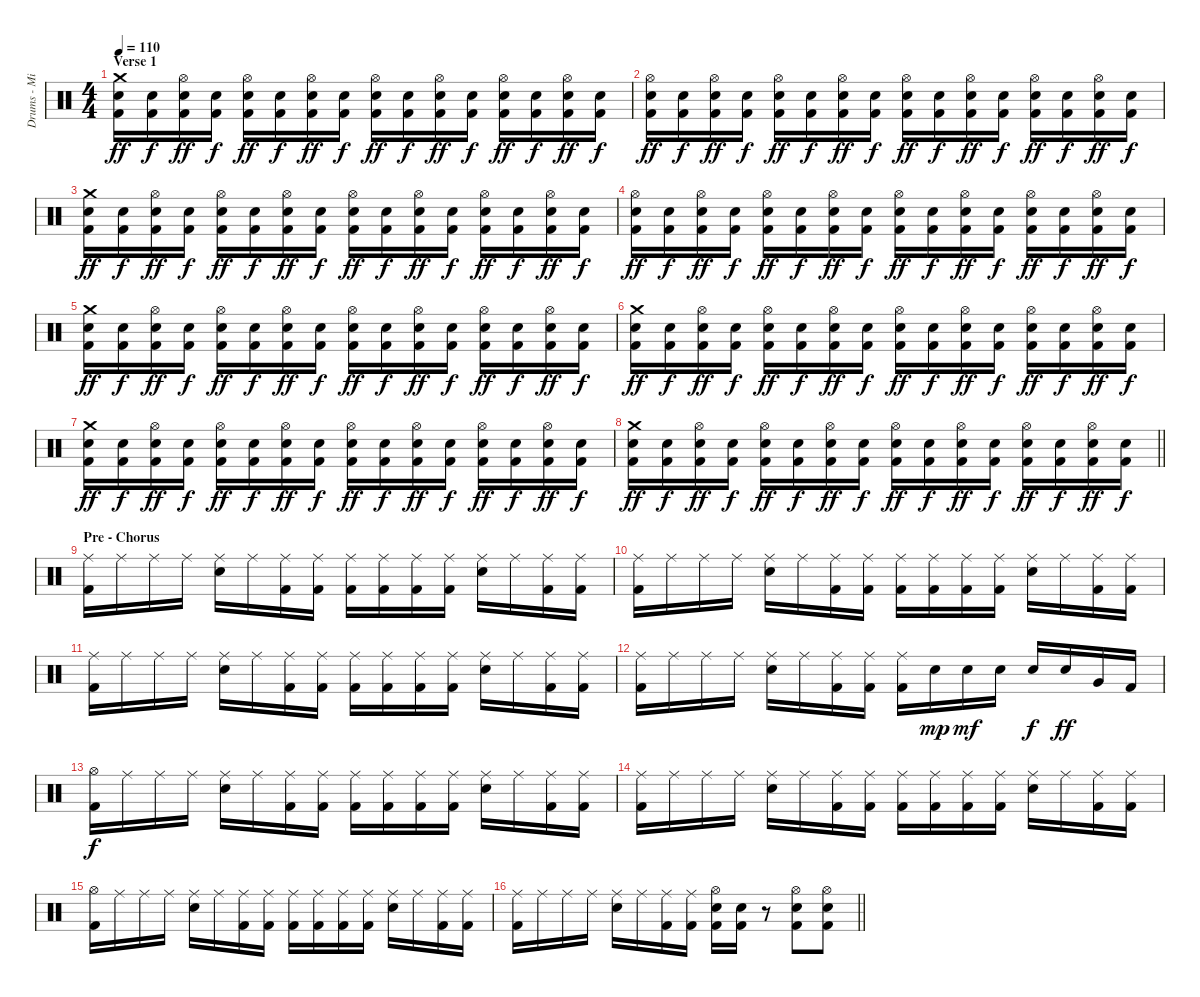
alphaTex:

\track ("Drums - Mikko" "Drums - Mi") {instrument percussion}
\staff {score}
\articulation defaults
\ts (4 4)
\section ("" "Verse 1")
\tempo 110
\clef neutral
\ks c
("Crash medium (hit)" "Snare (hit) 2" "Kick (hit) 2").16{dy ff volume 11} ("Snare (hit) 2" "Kick (hit) 2").16{dy f} ("Hi-Hat (open)" "Snare (hit) 2" "Kick (hit) 2").16{dy ff} ("Snare (hit) 2" "Kick (hit) 2").16{dy f} ("Hi-Hat (open)" "Snare (hit) 2" "Kick (hit) 2").16{dy ff} ("Snare (hit) 2" "Kick (hit) 2").16{dy f} ("Hi-Hat (open)" "Snare (hit) 2" "Kick (hit) 2").16{dy ff} ("Snare (hit) 2" "Kick (hit) 2").16{dy f} ("Hi-Hat (open)" "Snare (hit) 2" "Kick (hit) 2").16{dy ff} ("Snare (hit) 2" "Kick (hit) 2").16{dy f} ("Hi-Hat (open)" "Snare (hit) 2" "Kick (hit) 2").16{dy ff} ("Snare (hit) 2" "Kick (hit) 2").16{dy f} ("Hi-Hat (open)" "Snare (hit) 2" "Kick (hit) 2").16{dy ff} ("Snare (hit) 2" "Kick (hit) 2").16{dy f} ("Hi-Hat (open)" "Snare (hit) 2" "Kick (hit) 2").16{dy ff} ("Snare (hit) 2" "Kick (hit) 2").16{dy f} |
("Hi-Hat (open)" "Snare (hit) 2" "Kick (hit) 2").16{dy ff volume 11} ("Snare (hit) 2" "Kick (hit) 2").16{dy f} ("Hi-Hat (open)" "Snare (hit) 2" "Kick (hit) 2").16{dy ff} ("Snare (hit) 2" "Kick (hit) 2").16{dy f} ("Hi-Hat (open)" "Snare (hit) 2" "Kick (hit) 2").16{dy ff} ("Snare (hit) 2" "Kick (hit) 2").16{dy f} ("Hi-Hat (open)" "Snare (hit) 2" "Kick (hit) 2").16{dy ff} ("Snare (hit) 2" "Kick (hit) 2").16{dy f} ("Hi-Hat (open)" "Snare (hit) 2" "Kick (hit) 2").16{dy ff} ("Snare (hit) 2" "Kick (hit) 2").16{dy f} ("Hi-Hat (open)" "Snare (hit) 2" "Kick (hit) 2").16{dy ff} ("Snare (hit) 2" "Kick (hit) 2").16{dy f} ("Hi-Hat (open)" "Snare (hit) 2" "Kick (hit) 2").16{dy ff} ("Snare (hit) 2" "Kick (hit) 2").16{dy f} ("Hi-Hat (open)" "Snare (hit) 2" "Kick (hit) 2").16{dy ff} ("Snare (hit) 2" "Kick (hit) 2").16{dy f} |
("Crash medium (hit)" "Snare (hit) 2" "Kick (hit) 2").16{dy ff volume 11} ("Snare (hit) 2" "Kick (hit) 2").16{dy f} ("Hi-Hat (open)" "Snare (hit) 2" "Kick (hit) 2").16{dy ff} ("Snare (hit) 2" "Kick (hit) 2").16{dy f} ("Hi-Hat (open)" "Snare (hit) 2" "Kick (hit) 2").16{dy ff} ("Snare (hit) 2" "Kick (hit) 2").16{dy f} ("Hi-Hat (open)" "Snare (hit) 2" "Kick (hit) 2").16{dy ff} ("Snare (hit) 2" "Kick (hit) 2").16{dy f} ("Hi-Hat (open)" "Snare (hit) 2" "Kick (hit) 2").16{dy ff} ("Snare (hit) 2" "Kick (hit) 2").16{dy f} ("Hi-Hat (open)" "Snare (hit) 2" "Kick (hit) 2").16{dy ff} ("Snare (hit) 2" "Kick (hit) 2").16{dy f} ("Hi-Hat (open)" "Snare (hit) 2" "Kick (hit) 2").16{dy ff} ("Snare (hit) 2" "Kick (hit) 2").16{dy f} ("Hi-Hat (open)" "Snare (hit) 2" "Kick (hit) 2").16{dy ff} ("Snare (hit) 2" "Kick (hit) 2").16{dy f} |
("Hi-Hat (open)" "Snare (hit) 2" "Kick (hit) 2").16{dy ff volume 11} ("Snare (hit) 2" "Kick (hit) 2").16{dy f} ("Hi-Hat (open)" "Snare (hit) 2" "Kick (hit) 2").16{dy ff} ("Snare (hit) 2" "Kick (hit) 2").16{dy f} ("Hi-Hat (open)" "Snare (hit) 2" "Kick (hit) 2").16{dy ff} ("Snare (hit) 2" "Kick (hit) 2").16{dy f} ("Hi-Hat (open)" "Snare (hit) 2" "Kick (hit) 2").16{dy ff} ("Snare (hit) 2" "Kick (hit) 2").16{dy f} ("Hi-Hat (open)" "Snare (hit) 2" "Kick (hit) 2").16{dy ff} ("Snare (hit) 2" "Kick (hit) 2").16{dy f} ("Hi-Hat (open)" "Snare (hit) 2" "Kick (hit) 2").16{dy ff} ("Snare (hit) 2" "Kick (hit) 2").16{dy f} ("Hi-Hat (open)" "Snare (hit) 2" "Kick (hit) 2").16{dy ff} ("Snare (hit) 2" "Kick (hit) 2").16{dy f} ("Hi-Hat (open)" "Snare (hit) 2" "Kick (hit) 2").16{dy ff} ("Snare (hit) 2" "Kick (hit) 2").16{dy f} |
("Crash medium (hit)" "Snare (hit) 2" "Kick (hit) 2").16{dy ff volume 11} ("Snare (hit) 2" "Kick (hit) 2").16{dy f} ("Hi-Hat (open)" "Snare (hit) 2" "Kick (hit) 2").16{dy ff} ("Snare (hit) 2" "Kick (hit) 2").16{dy f} ("Hi-Hat (open)" "Snare (hit) 2" "Kick (hit) 2").16{dy ff} ("Snare (hit) 2" "Kick (hit) 2").16{dy f} ("Hi-Hat (open)" "Snare (hit) 2" "Kick (hit) 2").16{dy ff} ("Snare (hit) 2" "Kick (hit) 2").16{dy f} ("Hi-Hat (open)" "Snare (hit) 2" "Kick (hit) 2").16{dy ff} ("Snare (hit) 2" "Kick (hit) 2").16{dy f} ("Hi-Hat (open)" "Snare (hit) 2" "Kick (hit) 2").16{dy ff} ("Snare (hit) 2" "Kick (hit) 2").16{dy f} ("Hi-Hat (open)" "Snare (hit) 2" "Kick (hit) 2").16{dy ff} ("Snare (hit) 2" "Kick (hit) 2").16{dy f} ("Hi-Hat (open)" "Snare (hit) 2" "Kick (hit) 2").16{dy ff} ("Snare (hit) 2" "Kick (hit) 2").16{dy f} |
("Crash medium (hit)" "Snare (hit) 2" "Kick (hit) 2").16{dy ff volume 11} ("Snare (hit) 2" "Kick (hit) 2").16{dy f} ("Hi-Hat (open)" "Snare (hit) 2" "Kick (hit) 2").16{dy ff} ("Snare (hit) 2" "Kick (hit) 2").16{dy f} ("Hi-Hat (open)" "Snare (hit) 2" "Kick (hit) 2").16{dy ff} ("Snare (hit) 2" "Kick (hit) 2").16{dy f} ("Hi-Hat (open)" "Snare (hit) 2" "Kick (hit) 2").16{dy ff} ("Snare (hit) 2" "Kick (hit) 2").16{dy f} ("Hi-Hat (open)" "Snare (hit) 2" "Kick (hit) 2").16{dy ff} ("Snare (hit) 2" "Kick (hit) 2").16{dy f} ("Hi-Hat (open)" "Snare (hit) 2" "Kick (hit) 2").16{dy ff} ("Snare (hit) 2" "Kick (hit) 2").16{dy f} ("Hi-Hat (open)" "Snare (hit) 2" "Kick (hit) 2").16{dy ff} ("Snare (hit) 2" "Kick (hit) 2").16{dy f} ("Hi-Hat (open)" "Snare (hit) 2" "Kick (hit) 2").16{dy ff} ("Snare (hit) 2" "Kick (hit) 2").16{dy f} |
("Crash medium (hit)" "Snare (hit) 2" "Kick (hit) 2").16{dy ff volume 11} ("Snare (hit) 2" "Kick (hit) 2").16{dy f} ("Hi-Hat (open)" "Snare (hit) 2" "Kick (hit) 2").16{dy ff} ("Snare (hit) 2" "Kick (hit) 2").16{dy f} ("Hi-Hat (open)" "Snare (hit) 2" "Kick (hit) 2").16{dy ff} ("Snare (hit) 2" "Kick (hit) 2").16{dy f} ("Hi-Hat (open)" "Snare (hit) 2" "Kick (hit) 2").16{dy ff} ("Snare (hit) 2" "Kick (hit) 2").16{dy f} ("Hi-Hat (open)" "Snare (hit) 2" "Kick (hit) 2").16{dy ff} ("Snare (hit) 2" "Kick (hit) 2").16{dy f} ("Hi-Hat (open)" "Snare (hit) 2" "Kick (hit) 2").16{dy ff} ("Snare (hit) 2" "Kick (hit) 2").16{dy f} ("Hi-Hat (open)" "Snare (hit) 2" "Kick (hit) 2").16{dy ff} ("Snare (hit) 2" "Kick (hit) 2").16{dy f} ("Hi-Hat (open)" "Snare (hit) 2" "Kick (hit) 2").16{dy ff} ("Snare (hit) 2" "Kick (hit) 2").16{dy f} |
\barLineRight lightlight
("Crash medium (hit)" "Snare (hit) 2" "Kick (hit) 2").16{dy ff volume 11} ("Snare (hit) 2" "Kick (hit) 2").16{dy f} ("Hi-Hat (open)" "Snare (hit) 2" "Kick (hit) 2").16{dy ff} ("Snare (hit) 2" "Kick (hit) 2").16{dy f} ("Hi-Hat (open)" "Snare (hit) 2" "Kick (hit) 2").16{dy ff} ("Snare (hit) 2" "Kick (hit) 2").16{dy f} ("Hi-Hat (open)" "Snare (hit) 2" "Kick (hit) 2").16{dy ff} ("Snare (hit) 2" "Kick (hit) 2").16{dy f} ("Hi-Hat (open)" "Snare (hit) 2" "Kick (hit) 2").16{dy ff} ("Snare (hit) 2" "Kick (hit) 2").16{dy f} ("Hi-Hat (open)" "Snare (hit) 2" "Kick (hit) 2").16{dy ff} ("Snare (hit) 2" "Kick (hit) 2").16{dy f} ("Hi-Hat (open)" "Snare (hit) 2" "Kick (hit) 2").16{dy ff} ("Snare (hit) 2" "Kick (hit) 2").16{dy f} ("Hi-Hat (open)" "Snare (hit) 2" "Kick (hit) 2").16{dy ff} ("Snare (hit) 2" "Kick (hit) 2").16{dy f} |
\section ("" "Pre - Chorus")
("Ride (middle)" "Kick (hit) 2").16{volume 13} "Ride (middle)".16 "Ride (middle)".16 "Ride (middle)".16 ("Ride (middle)" "Snare (hit) 2").16 "Ride (middle)".16 ("Ride (middle)" "Kick (hit) 2").16 ("Ride (middle)" "Kick (hit) 2").16 ("Ride (middle)" "Kick (hit) 2").16 ("Ride (middle)" "Kick (hit) 2").16 ("Ride (middle)" "Kick (hit) 2").16 ("Ride (middle)" "Kick (hit) 2").16 ("Ride (middle)" "Snare (hit) 2").16 "Ride (middle)".16 ("Ride (middle)" "Kick (hit) 2").16 ("Ride (middle)" "Kick (hit) 2").16 |
("Ride (middle)" "Kick (hit) 2").16{volume 13} "Ride (middle)".16 "Ride (middle)".16 "Ride (middle)".16 ("Ride (middle)" "Snare (hit) 2").16 "Ride (middle)".16 ("Ride (middle)" "Kick (hit) 2").16 ("Ride (middle)" "Kick (hit) 2").16 ("Ride (middle)" "Kick (hit) 2").16 ("Ride (middle)" "Kick (hit) 2").16 ("Ride (middle)" "Kick (hit) 2").16 ("Ride (middle)" "Kick (hit) 2").16 ("Ride (middle)" "Snare (hit) 2").16 "Ride (middle)".16 ("Ride (middle)" "Kick (hit) 2").16 ("Ride (middle)" "Kick (hit) 2").16 |
("Ride (middle)" "Kick (hit) 2").16{volume 13} "Ride (middle)".16 "Ride (middle)".16 "Ride (middle)".16 ("Ride (middle)" "Snare (hit) 2").16 "Ride (middle)".16 ("Ride (middle)" "Kick (hit) 2").16 ("Ride (middle)" "Kick (hit) 2").16 ("Ride (middle)" "Kick (hit) 2").16 ("Ride (middle)" "Kick (hit) 2").16 ("Ride (middle)" "Kick (hit) 2").16 ("Ride (middle)" "Kick (hit) 2").16 ("Ride (middle)" "Snare (hit) 2").16 "Ride (middle)".16 ("Ride (middle)" "Kick (hit) 2").16 ("Ride (middle)" "Kick (hit) 2").16 |
("Ride (middle)" "Kick (hit) 2").16{volume 13} "Ride (middle)".16 "Ride (middle)".16 "Ride (middle)".16 ("Ride (middle)" "Snare (hit) 2").16 "Ride (middle)".16 ("Ride (middle)" "Kick (hit) 2").16 ("Ride (middle)" "Kick (hit) 2").16 ("Ride (middle)" "Kick (hit) 2").16 "Snare (hit) 2".16{dy mp} "Snare (hit) 2".16{dy mf} "Snare (hit) 2".16 "Snare (hit) 2".16{dy f} "Snare (hit) 2".16{dy ff} "Very Low Tom (hit)".16 "Kick (hit) 2".16 |
("Hi-Hat (open)" "Kick (hit) 2").16{dy f volume 13} "Ride (middle)".16 "Ride (middle)".16 "Ride (middle)".16 ("Ride (middle)" "Snare (hit) 2").16 "Ride (middle)".16 ("Ride (middle)" "Kick (hit) 2").16 ("Ride (middle)" "Kick (hit) 2").16 ("Ride (middle)" "Kick (hit) 2").16 ("Ride (middle)" "Kick (hit) 2").16 ("Ride (middle)" "Kick (hit) 2").16 ("Ride (middle)" "Kick (hit) 2").16 ("Ride (middle)" "Snare (hit) 2").16 "Ride (middle)".16 ("Ride (middle)" "Kick (hit) 2").16 ("Ride (middle)" "Kick (hit) 2").16 |
("Ride (middle)" "Kick (hit) 2").16{volume 13} "Ride (middle)".16 "Ride (middle)".16 "Ride (middle)".16 ("Ride (middle)" "Snare (hit) 2").16 "Ride (middle)".16 ("Ride (middle)" "Kick (hit) 2").16 ("Ride (middle)" "Kick (hit) 2").16 ("Ride (middle)" "Kick (hit) 2").16 ("Ride (middle)" "Kick (hit) 2").16 ("Ride (middle)" "Kick (hit) 2").16 ("Ride (middle)" "Kick (hit) 2").16 ("Ride (middle)" "Snare (hit) 2").16 "Ride (middle)".16 ("Ride (middle)" "Kick (hit) 2").16 ("Ride (middle)" "Kick (hit) 2").16 |
("Hi-Hat (open)" "Kick (hit) 2").16{volume 13} "Ride (middle)".16 "Ride (middle)".16 "Ride (middle)".16 ("Ride (middle)" "Snare (hit) 2").16 "Ride (middle)".16 ("Ride (middle)" "Kick (hit) 2").16 ("Ride (middle)" "Kick (hit) 2").16 ("Ride (middle)" "Kick (hit) 2").16 ("Ride (middle)" "Kick (hit) 2").16 ("Ride (middle)" "Kick (hit) 2").16 ("Ride (middle)" "Kick (hit) 2").16 ("Ride (middle)" "Snare (hit) 2").16 "Ride (middle)".16 ("Ride (middle)" "Kick (hit) 2").16 ("Ride (middle)" "Kick (hit) 2").16 |
\barLineRight lightlight
("Ride (middle)" "Kick (hit) 2").16{volume 13} "Ride (middle)".16 "Ride (middle)".16 "Ride (middle)".16 ("Ride (middle)" "Snare (hit) 2").16 "Ride (middle)".16 ("Ride (middle)" "Kick (hit) 2").16 ("Ride (middle)" "Kick (hit) 2").16 ("Hi-Hat (open)" "Snare (hit) 2" "Kick (hit) 2").16 ("Snare (hit) 2" "Kick (hit) 2").16 r.8 ("Hi-Hat (open)" "Snare (hit) 2" "Kick (hit) 2").8 ("Hi-Hat (open)" "Snare (hit) 2" "Kick (hit) 2").8
